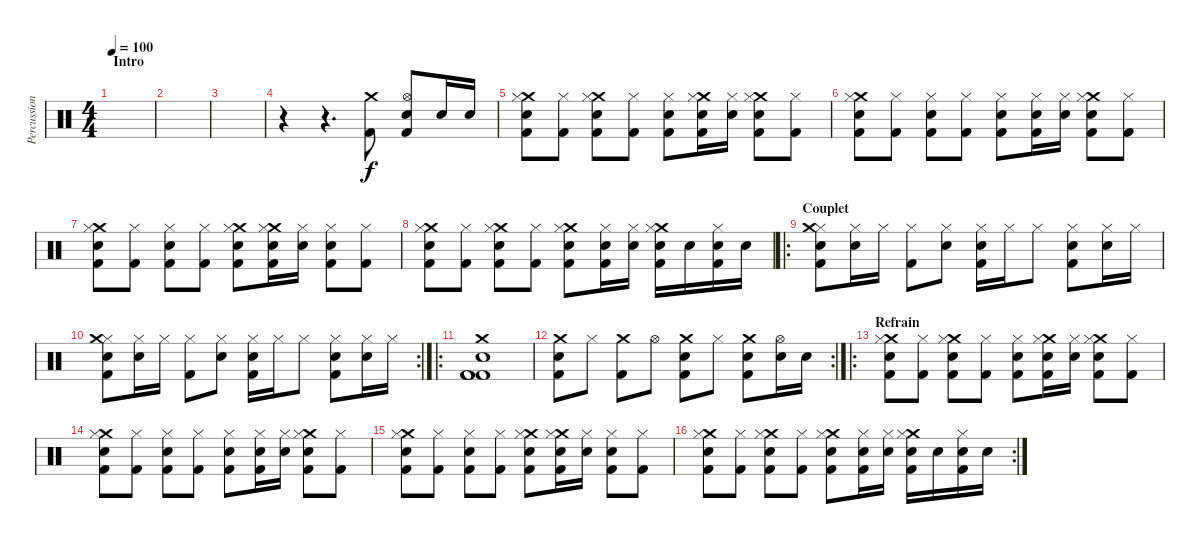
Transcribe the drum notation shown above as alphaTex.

\track ("Percussions" "Percussion") {instrument percussion}
\staff {score}
\articulation defaults
\ts (4 4)
\section ("" "Intro")
\tempo 100
\clef neutral
\ks c
|
|
|
r.4 r.4{d} ("Crash medium (hit)" "Kick (hit) 2").8 ("Hi-Hat (open)" "Kick (hit) 2" "Electric Snare (hit)").8 "Electric Snare (hit)".16 "Electric Snare (hit)".16 |
("Crash medium (hit)" "Kick (hit) 2" "Hi-Hat (closed)" "Electric Snare (hit)").8 ("Kick (hit) 2" "Hi-Hat (closed)").8 ("Crash medium (hit)" "Kick (hit) 2" "Hi-Hat (closed)" "Electric Snare (hit)").8 ("Kick (hit) 2" "Hi-Hat (closed)").8 ("Kick (hit) 2" "Hi-Hat (closed)" "Electric Snare (hit)").8 ("Crash medium (hit)" "Kick (hit) 2" "Hi-Hat (closed)" "Electric Snare (hit)").16 ("Hi-Hat (closed)" "Electric Snare (hit)").16 ("Crash medium (hit)" "Kick (hit) 2" "Hi-Hat (closed)" "Electric Snare (hit)").8 ("Kick (hit) 2" "Hi-Hat (closed)").8 |
("Crash medium (hit)" "Kick (hit) 2" "Hi-Hat (closed)" "Electric Snare (hit)").8 ("Kick (hit) 2" "Hi-Hat (closed)").8 ("Kick (hit) 2" "Hi-Hat (closed)" "Electric Snare (hit)").8 ("Kick (hit) 2" "Hi-Hat (closed)").8 ("Kick (hit) 2" "Hi-Hat (closed)" "Electric Snare (hit)").8 ("Kick (hit) 2" "Hi-Hat (closed)" "Electric Snare (hit)").16 ("Hi-Hat (closed)" "Electric Snare (hit)").16 ("Crash medium (hit)" "Kick (hit) 2" "Hi-Hat (closed)" "Electric Snare (hit)").8 ("Kick (hit) 2" "Hi-Hat (closed)").8 |
("Crash medium (hit)" "Kick (hit) 2" "Hi-Hat (closed)" "Electric Snare (hit)").8 ("Kick (hit) 2" "Hi-Hat (closed)").8 ("Kick (hit) 2" "Hi-Hat (closed)" "Electric Snare (hit)").8 ("Kick (hit) 2" "Hi-Hat (closed)").8 ("Crash medium (hit)" "Kick (hit) 2" "Hi-Hat (closed)" "Electric Snare (hit)").8 ("Crash medium (hit)" "Kick (hit) 2" "Hi-Hat (closed)" "Electric Snare (hit)").16 ("Hi-Hat (closed)" "Electric Snare (hit)").16 ("Kick (hit) 2" "Hi-Hat (closed)" "Electric Snare (hit)").8 ("Kick (hit) 2" "Hi-Hat (closed)").8 |
("Crash medium (hit)" "Kick (hit) 2" "Hi-Hat (closed)" "Electric Snare (hit)").8 ("Kick (hit) 2" "Hi-Hat (closed)").8 ("Crash medium (hit)" "Kick (hit) 2" "Hi-Hat (closed)" "Electric Snare (hit)").8 ("Kick (hit) 2" "Hi-Hat (closed)").8 ("Crash medium (hit)" "Kick (hit) 2" "Hi-Hat (closed)" "Electric Snare (hit)").8 ("Kick (hit) 2" "Hi-Hat (closed)" "Electric Snare (hit)").16 ("Hi-Hat (closed)" "Electric Snare (hit)").16 ("Crash medium (hit)" "Kick (hit) 2" "Hi-Hat (closed)" "Electric Snare (hit)").16 "Electric Snare (hit)".16 ("Kick (hit) 2" "Hi-Hat (closed)" "Electric Snare (hit)").16 "Electric Snare (hit)".16 |
\ro
\section ("" "Couplet")
("Hi-Hat (closed)" "Crash medium (hit)" "Kick (hit) 2" "Electric Snare (hit)").8 ("Hi-Hat (closed)" "Electric Snare (hit)").16 "Hi-Hat (closed)".16 ("Hi-Hat (closed)" "Kick (hit) 2").8 ("Hi-Hat (closed)" "Electric Snare (hit)").8 ("Hi-Hat (closed)" "Kick (hit) 2" "Electric Snare (hit)").16 "Hi-Hat (closed)".16 "Hi-Hat (closed)".8 ("Hi-Hat (closed)" "Kick (hit) 2" "Electric Snare (hit)").8 ("Hi-Hat (closed)" "Electric Snare (hit)").16 "Hi-Hat (closed)".16 |
\rc 2
("Hi-Hat (closed)" "Crash medium (hit)" "Kick (hit) 2" "Electric Snare (hit)").8 ("Hi-Hat (closed)" "Electric Snare (hit)").16 "Hi-Hat (closed)".16 ("Hi-Hat (closed)" "Kick (hit) 2").8 ("Hi-Hat (closed)" "Electric Snare (hit)").8 ("Hi-Hat (closed)" "Kick (hit) 2" "Electric Snare (hit)").16 "Hi-Hat (closed)".16 "Hi-Hat (closed)".8 ("Hi-Hat (closed)" "Kick (hit) 2" "Electric Snare (hit)").8 ("Hi-Hat (closed)" "Electric Snare (hit)").16 "Hi-Hat (closed)".16 |
\ro
("Crash medium (hit)" "Kick (hit) 2" "Electric Snare (hit)" "Kick (hit) 2" "Kick (hit) 2").1 |
\rc 2
("Crash medium (hit)" "Kick (hit) 2" "Electric Snare (hit)").8 "Hi-Hat (closed)".8 ("Crash medium (hit)" "Kick (hit) 2").8 "Hi-Hat (open)".8 ("Crash medium (hit)" "Kick (hit) 2" "Electric Snare (hit)").8 "Hi-Hat (closed)".8 ("Crash medium (hit)" "Kick (hit) 2" "Electric Snare (hit)").8 ("Hi-Hat (open)" "Electric Snare (hit)").16 "Electric Snare (hit)".16 |
\ro
\section ("" "Refrain")
("Crash medium (hit)" "Kick (hit) 2" "Hi-Hat (closed)" "Electric Snare (hit)").8 ("Kick (hit) 2" "Hi-Hat (closed)").8 ("Crash medium (hit)" "Kick (hit) 2" "Hi-Hat (closed)" "Electric Snare (hit)").8 ("Kick (hit) 2" "Hi-Hat (closed)").8 ("Kick (hit) 2" "Hi-Hat (closed)" "Electric Snare (hit)").8 ("Crash medium (hit)" "Kick (hit) 2" "Hi-Hat (closed)" "Electric Snare (hit)").16 ("Hi-Hat (closed)" "Electric Snare (hit)").16 ("Crash medium (hit)" "Kick (hit) 2" "Hi-Hat (closed)" "Electric Snare (hit)").8 ("Kick (hit) 2" "Hi-Hat (closed)").8 |
("Crash medium (hit)" "Kick (hit) 2" "Hi-Hat (closed)" "Electric Snare (hit)").8 ("Kick (hit) 2" "Hi-Hat (closed)").8 ("Kick (hit) 2" "Hi-Hat (closed)" "Electric Snare (hit)").8 ("Kick (hit) 2" "Hi-Hat (closed)").8 ("Kick (hit) 2" "Hi-Hat (closed)" "Electric Snare (hit)").8 ("Kick (hit) 2" "Hi-Hat (closed)" "Electric Snare (hit)").16 ("Hi-Hat (closed)" "Electric Snare (hit)").16 ("Crash medium (hit)" "Kick (hit) 2" "Hi-Hat (closed)" "Electric Snare (hit)").8 ("Kick (hit) 2" "Hi-Hat (closed)").8 |
("Crash medium (hit)" "Kick (hit) 2" "Hi-Hat (closed)" "Electric Snare (hit)").8 ("Kick (hit) 2" "Hi-Hat (closed)").8 ("Kick (hit) 2" "Hi-Hat (closed)" "Electric Snare (hit)").8 ("Kick (hit) 2" "Hi-Hat (closed)").8 ("Crash medium (hit)" "Kick (hit) 2" "Hi-Hat (closed)" "Electric Snare (hit)").8 ("Crash medium (hit)" "Kick (hit) 2" "Hi-Hat (closed)" "Electric Snare (hit)").16 ("Hi-Hat (closed)" "Electric Snare (hit)").16 ("Kick (hit) 2" "Hi-Hat (closed)" "Electric Snare (hit)").8 ("Kick (hit) 2" "Hi-Hat (closed)").8 |
\rc 2
("Crash medium (hit)" "Kick (hit) 2" "Hi-Hat (closed)" "Electric Snare (hit)").8 ("Kick (hit) 2" "Hi-Hat (closed)").8 ("Crash medium (hit)" "Kick (hit) 2" "Hi-Hat (closed)" "Electric Snare (hit)").8 ("Kick (hit) 2" "Hi-Hat (closed)").8 ("Crash medium (hit)" "Kick (hit) 2" "Hi-Hat (closed)" "Electric Snare (hit)").8 ("Kick (hit) 2" "Hi-Hat (closed)" "Electric Snare (hit)").16 ("Hi-Hat (closed)" "Electric Snare (hit)").16 ("Crash medium (hit)" "Kick (hit) 2" "Hi-Hat (closed)" "Electric Snare (hit)").16 "Electric Snare (hit)".16 ("Kick (hit) 2" "Hi-Hat (closed)" "Electric Snare (hit)").16 "Electric Snare (hit)".16
